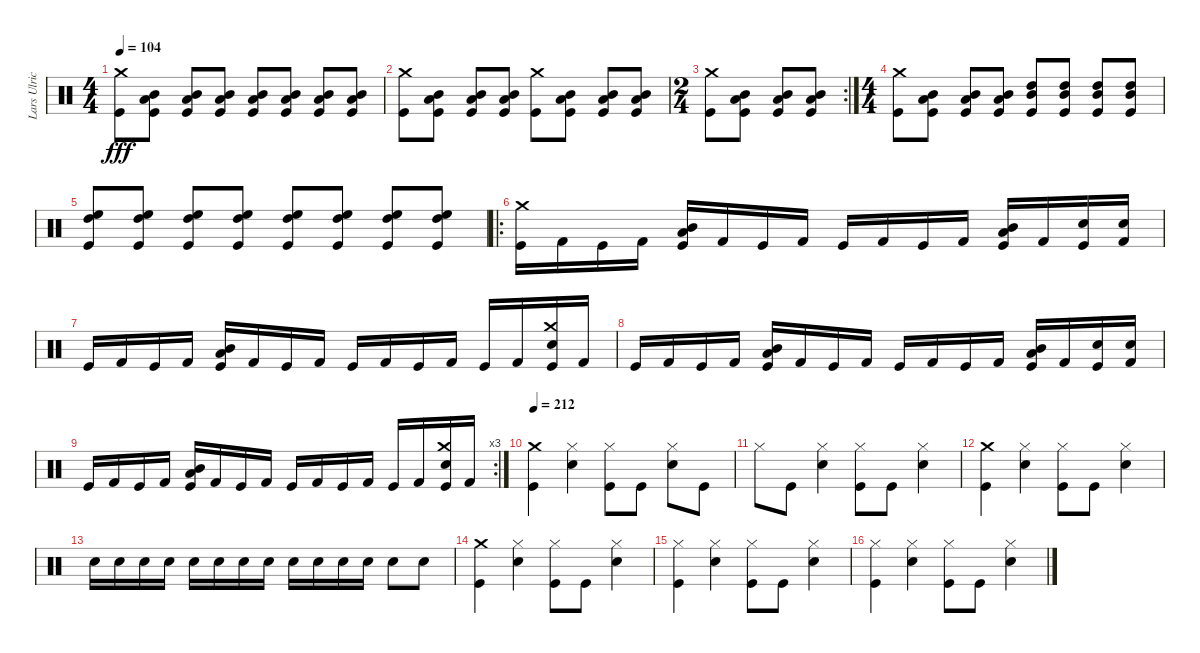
\track ("Lars Ulrich" "Lars Ulric") {instrument percussion}
\staff {score}
\articulation defaults
\ts (4 4)
\tempo 104
\clef neutral
\ks c
("Kick (hit)" "Crash medium (hit)").8{dy fff} ("Kick (hit)" "Mid Tom (hit)" "Low Tom (hit)").8 ("Low Tom (hit)" "Mid Tom (hit)" "Kick (hit)").8 ("Kick (hit)" "Mid Tom (hit)" "Low Tom (hit)").8 ("Kick (hit)" "Mid Tom (hit)" "Low Tom (hit)").8 ("Kick (hit)" "Mid Tom (hit)" "Low Tom (hit)").8 ("Low Tom (hit)" "Kick (hit)" "Mid Tom (hit)").8 ("Low Tom (hit)" "Kick (hit)" "Mid Tom (hit)").8 |
("Crash medium (hit)" "Kick (hit)").8 ("Mid Tom (hit)" "Low Tom (hit)" "Kick (hit)").8 ("Mid Tom (hit)" "Low Tom (hit)" "Kick (hit)").8 ("Low Tom (hit)" "Mid Tom (hit)" "Kick (hit)").8 ("Crash medium (hit)" "Kick (hit)").8 ("Kick (hit)" "Low Tom (hit)" "Mid Tom (hit)").8 ("Kick (hit)" "Low Tom (hit)" "Mid Tom (hit)").8 ("Kick (hit)" "Low Tom (hit)" "Mid Tom (hit)").8 |
\rc 2
\ts (2 4)
("Crash medium (hit)" "Kick (hit)").8 ("Low Tom (hit)" "Mid Tom (hit)" "Kick (hit)").8 ("Low Tom (hit)" "Mid Tom (hit)" "Kick (hit)").8 ("Low Tom (hit)" "Mid Tom (hit)" "Kick (hit)").8 |
\ts (4 4)
("Kick (hit)" "Crash medium (hit)").8 ("Kick (hit)" "Low Tom (hit)" "Mid Tom (hit)").8 ("Low Tom (hit)" "Kick (hit)" "Mid Tom (hit)").8 ("Kick (hit)" "Low Tom (hit)" "Mid Tom (hit)").8 ("High Tom (hit)" "Mid Tom (hit)" "Kick (hit)").8 ("High Tom (hit)" "Mid Tom (hit)" "Kick (hit)").8 ("Mid Tom (hit)" "High Tom (hit)" "Kick (hit)").8 ("Kick (hit)" "High Tom (hit)" "Mid Tom (hit)").8 |
("Kick (hit)" "High Floor Tom (hit)" "High Tom (hit)").8 ("Kick (hit)" "High Tom (hit)" "High Floor Tom (hit)").8 ("Kick (hit)" "High Tom (hit)" "High Floor Tom (hit)").8 ("High Tom (hit)" "Kick (hit)" "High Floor Tom (hit)").8 ("Kick (hit)" "High Tom (hit)" "High Floor Tom (hit)").8 ("Kick (hit)" "High Tom (hit)" "High Floor Tom (hit)").8 ("Kick (hit)" "High Tom (hit)" "High Floor Tom (hit)").8 ("High Floor Tom (hit)" "Kick (hit)" "High Tom (hit)").8 |
\ro
("Kick (hit)" "Crash medium (hit)").16 "Kick (hit) 2".16 "Kick (hit)".16 "Kick (hit) 2".16 ("Kick (hit)" "Low Tom (hit)" "Mid Tom (hit)").16 "Kick (hit) 2".16 "Kick (hit)".16 "Kick (hit) 2".16 "Kick (hit)".16 "Kick (hit) 2".16 "Kick (hit)".16 "Kick (hit) 2".16 ("Kick (hit)" "Low Tom (hit)" "Mid Tom (hit)").16 "Kick (hit) 2".16 ("Kick (hit)" "Snare (hit) 2").16 ("Kick (hit) 2" "Snare (hit) 2").16 |
"Kick (hit)".16 "Kick (hit) 2".16 "Kick (hit)".16 "Kick (hit) 2".16 ("Low Tom (hit)" "Kick (hit)" "Mid Tom (hit)").16 "Kick (hit) 2".16 "Kick (hit)".16 "Kick (hit) 2".16 "Kick (hit)".16 "Kick (hit) 2".16 "Kick (hit)".16 "Kick (hit) 2".16 "Kick (hit)".16 "Kick (hit) 2".16 ("Crash medium (hit)" "Snare (hit) 2" "Kick (hit)").16 "Kick (hit) 2".16 |
"Kick (hit)".16 "Kick (hit) 2".16 "Kick (hit)".16 "Kick (hit) 2".16 ("Kick (hit)" "Low Tom (hit)" "Mid Tom (hit)").16 "Kick (hit) 2".16 "Kick (hit)".16 "Kick (hit) 2".16 "Kick (hit)".16 "Kick (hit) 2".16 "Kick (hit)".16 "Kick (hit) 2".16 ("Kick (hit)" "Low Tom (hit)" "Mid Tom (hit)").16 "Kick (hit) 2".16 ("Kick (hit)" "Snare (hit) 2").16 ("Snare (hit) 2" "Kick (hit) 2").16 |
\rc 3 "Kick (hit)".16 "Kick (hit) 2".16 "Kick (hit)".16 "Kick (hit) 2".16
("Low Tom (hit)" "Kick (hit)" "Mid Tom (hit)").16 "Kick (hit) 2".16 "Kick (hit)".16 "Kick (hit) 2".16 "Kick (hit)".16 "Kick (hit) 2".16 "Kick (hit)".16 "Kick (hit) 2".16 "Kick (hit)".16 "Kick (hit) 2".16 ("Snare (hit) 2" "Kick (hit)" "Crash medium (hit)").16 "Kick (hit) 2".16 |
\tempo 212
("Kick (hit)" "Crash medium (hit)").4 ("Snare (hit) 2" "Hi-Hat (closed)").4 ("Kick (hit)" "Hi-Hat (closed)").8 "Kick (hit)".8 ("Hi-Hat (closed)" "Snare (hit) 2").8 "Kick (hit)".8 |
"Hi-Hat (closed)".8 "Kick (hit)".8 ("Snare (hit) 2" "Hi-Hat (closed)").4 ("Hi-Hat (closed)" "Kick (hit)").8 "Kick (hit)".8 ("Snare (hit) 2" "Hi-Hat (closed)").4 |
("Crash medium (hit)" "Kick (hit)").4 ("Snare (hit) 2" "Hi-Hat (closed)").4 ("Kick (hit)" "Hi-Hat (closed)").8 "Kick (hit)".8 ("Snare (hit) 2" "Hi-Hat (closed)").4 |
"Snare (hit) 2".16 "Snare (hit) 2".16 "Snare (hit) 2".16 "Snare (hit) 2".16 "Snare (hit) 2".16 "Snare (hit) 2".16 "Snare (hit) 2".16 "Snare (hit) 2".16 "Snare (hit) 2".16 "Snare (hit) 2".16 "Snare (hit) 2".16 "Snare (hit) 2".16 "Snare (hit) 2".8 "Snare (hit) 2".8 |
("Kick (hit)" "Crash medium (hit)").4 ("Snare (hit) 2" "Hi-Hat (closed)").4 ("Hi-Hat (closed)" "Kick (hit)").8 "Kick (hit)".8 ("Snare (hit) 2" "Hi-Hat (closed)").4 |
("Hi-Hat (closed)" "Kick (hit)").4 ("Snare (hit) 2" "Hi-Hat (closed)").4 ("Kick (hit)" "Hi-Hat (closed)").8 "Kick (hit)".8 ("Snare (hit) 2" "Hi-Hat (closed)").4 |
("Kick (hit)" "Hi-Hat (closed)").4 ("Snare (hit) 2" "Hi-Hat (closed)").4 ("Kick (hit)" "Hi-Hat (closed)").8 "Kick (hit)".8 ("Snare (hit) 2" "Hi-Hat (closed)").4
